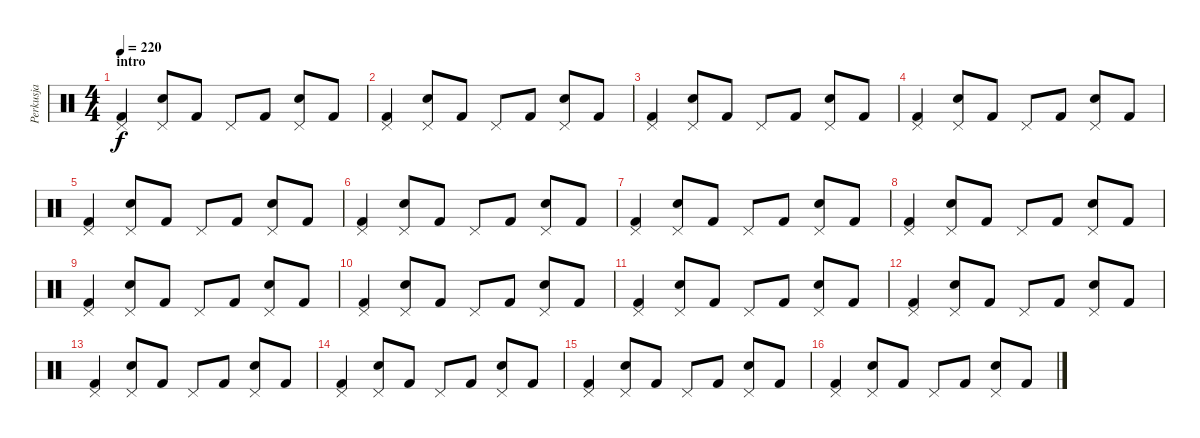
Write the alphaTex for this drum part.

\track ("Perkusja" "Perkusja") {instrument percussion}
\staff {score}
\articulation defaults
\ts (4 4)
\section ("" "intro")
\tempo 220
\clef neutral
\ks c
("Pedal Hi-Hat (hit)" "Kick (hit) 2").4{dy f} ("Pedal Hi-Hat (hit)" "Snare (hit) 2").8 "Kick (hit) 2".8 "Pedal Hi-Hat (hit)".8 "Kick (hit) 2".8 ("Pedal Hi-Hat (hit)" "Snare (hit) 2").8 "Kick (hit) 2".8 |
("Pedal Hi-Hat (hit)" "Kick (hit) 2").4 ("Pedal Hi-Hat (hit)" "Snare (hit) 2").8 "Kick (hit) 2".8 "Pedal Hi-Hat (hit)".8 "Kick (hit) 2".8 ("Pedal Hi-Hat (hit)" "Snare (hit) 2").8 "Kick (hit) 2".8 |
("Pedal Hi-Hat (hit)" "Kick (hit) 2").4 ("Pedal Hi-Hat (hit)" "Snare (hit) 2").8 "Kick (hit) 2".8 "Pedal Hi-Hat (hit)".8 "Kick (hit) 2".8 ("Pedal Hi-Hat (hit)" "Snare (hit) 2").8 "Kick (hit) 2".8 |
("Pedal Hi-Hat (hit)" "Kick (hit) 2").4 ("Pedal Hi-Hat (hit)" "Snare (hit) 2").8 "Kick (hit) 2".8 "Pedal Hi-Hat (hit)".8 "Kick (hit) 2".8 ("Pedal Hi-Hat (hit)" "Snare (hit) 2").8 "Kick (hit) 2".8 |
("Pedal Hi-Hat (hit)" "Kick (hit) 2").4 ("Pedal Hi-Hat (hit)" "Snare (hit) 2").8 "Kick (hit) 2".8 "Pedal Hi-Hat (hit)".8 "Kick (hit) 2".8 ("Pedal Hi-Hat (hit)" "Snare (hit) 2").8 "Kick (hit) 2".8 |
("Pedal Hi-Hat (hit)" "Kick (hit) 2").4 ("Pedal Hi-Hat (hit)" "Snare (hit) 2").8 "Kick (hit) 2".8 "Pedal Hi-Hat (hit)".8 "Kick (hit) 2".8 ("Pedal Hi-Hat (hit)" "Snare (hit) 2").8 "Kick (hit) 2".8 |
("Pedal Hi-Hat (hit)" "Kick (hit) 2").4 ("Pedal Hi-Hat (hit)" "Snare (hit) 2").8 "Kick (hit) 2".8 "Pedal Hi-Hat (hit)".8 "Kick (hit) 2".8 ("Pedal Hi-Hat (hit)" "Snare (hit) 2").8 "Kick (hit) 2".8 |
("Pedal Hi-Hat (hit)" "Kick (hit) 2").4 ("Pedal Hi-Hat (hit)" "Snare (hit) 2").8 "Kick (hit) 2".8 "Pedal Hi-Hat (hit)".8 "Kick (hit) 2".8 ("Pedal Hi-Hat (hit)" "Snare (hit) 2").8 "Kick (hit) 2".8 |
("Pedal Hi-Hat (hit)" "Kick (hit) 2").4 ("Pedal Hi-Hat (hit)" "Snare (hit) 2").8 "Kick (hit) 2".8 "Pedal Hi-Hat (hit)".8 "Kick (hit) 2".8 ("Pedal Hi-Hat (hit)" "Snare (hit) 2").8 "Kick (hit) 2".8 |
("Pedal Hi-Hat (hit)" "Kick (hit) 2").4 ("Pedal Hi-Hat (hit)" "Snare (hit) 2").8 "Kick (hit) 2".8 "Pedal Hi-Hat (hit)".8 "Kick (hit) 2".8 ("Pedal Hi-Hat (hit)" "Snare (hit) 2").8 "Kick (hit) 2".8 |
("Pedal Hi-Hat (hit)" "Kick (hit) 2").4 ("Pedal Hi-Hat (hit)" "Snare (hit) 2").8 "Kick (hit) 2".8 "Pedal Hi-Hat (hit)".8 "Kick (hit) 2".8 ("Pedal Hi-Hat (hit)" "Snare (hit) 2").8 "Kick (hit) 2".8 |
("Pedal Hi-Hat (hit)" "Kick (hit) 2").4 ("Pedal Hi-Hat (hit)" "Snare (hit) 2").8 "Kick (hit) 2".8 "Pedal Hi-Hat (hit)".8 "Kick (hit) 2".8 ("Pedal Hi-Hat (hit)" "Snare (hit) 2").8 "Kick (hit) 2".8 |
("Pedal Hi-Hat (hit)" "Kick (hit) 2").4 ("Pedal Hi-Hat (hit)" "Snare (hit) 2").8 "Kick (hit) 2".8 "Pedal Hi-Hat (hit)".8 "Kick (hit) 2".8 ("Pedal Hi-Hat (hit)" "Snare (hit) 2").8 "Kick (hit) 2".8 |
("Pedal Hi-Hat (hit)" "Kick (hit) 2").4 ("Pedal Hi-Hat (hit)" "Snare (hit) 2").8 "Kick (hit) 2".8 "Pedal Hi-Hat (hit)".8 "Kick (hit) 2".8 ("Pedal Hi-Hat (hit)" "Snare (hit) 2").8 "Kick (hit) 2".8 |
("Pedal Hi-Hat (hit)" "Kick (hit) 2").4 ("Pedal Hi-Hat (hit)" "Snare (hit) 2").8 "Kick (hit) 2".8 "Pedal Hi-Hat (hit)".8 "Kick (hit) 2".8 ("Pedal Hi-Hat (hit)" "Snare (hit) 2").8 "Kick (hit) 2".8 |
("Pedal Hi-Hat (hit)" "Kick (hit) 2").4 ("Pedal Hi-Hat (hit)" "Snare (hit) 2").8 "Kick (hit) 2".8 "Pedal Hi-Hat (hit)".8 "Kick (hit) 2".8 ("Pedal Hi-Hat (hit)" "Snare (hit) 2").8 "Kick (hit) 2".8
